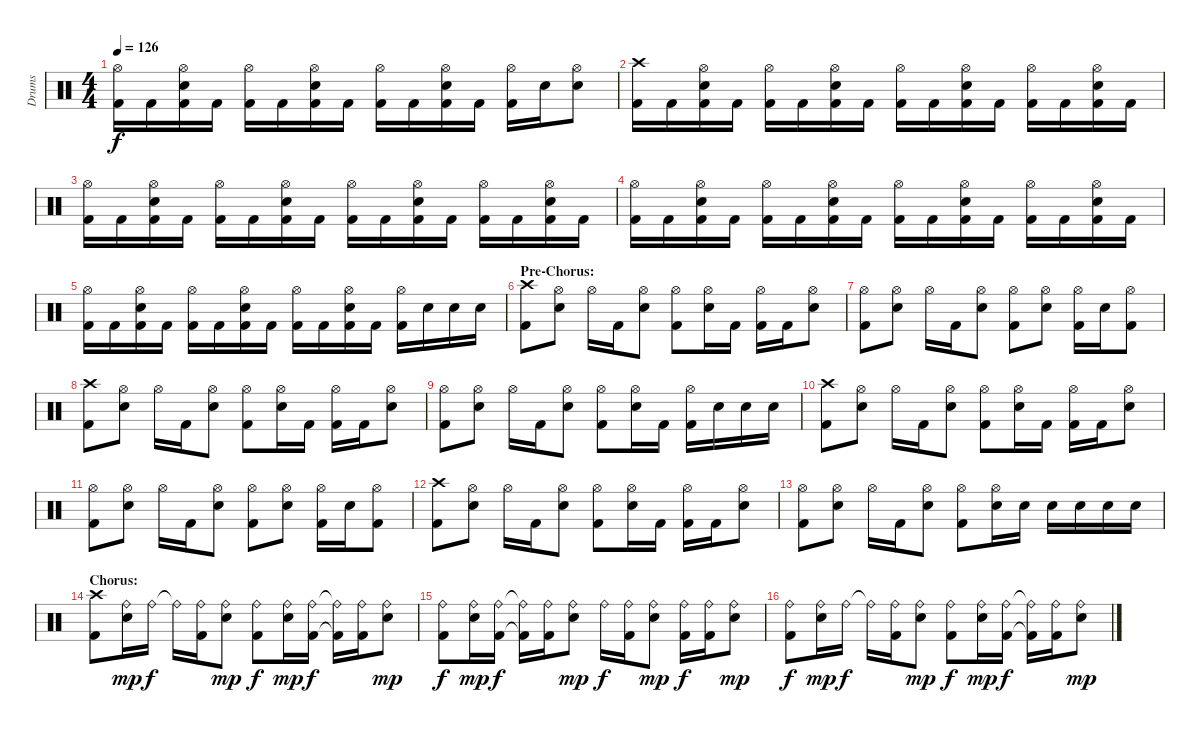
\track ("Drums" "Drums") {instrument percussion}
\staff {score}
\articulation defaults
\ts (4 4)
\tempo 126
\clef neutral
\ks c
("Hi-Hat (open)" "Kick (hit) 2").16{dy f} "Kick (hit) 2".16 ("Hi-Hat (open)" "Snare (hit) 2" "Kick (hit) 2").16 "Kick (hit) 2".16 ("Hi-Hat (open)" "Kick (hit) 2").16 "Kick (hit) 2".16 ("Hi-Hat (open)" "Snare (hit) 2" "Kick (hit) 2").16 "Kick (hit) 2".16 ("Hi-Hat (open)" "Kick (hit) 2").16 "Kick (hit) 2".16 ("Hi-Hat (open)" "Snare (hit) 2" "Kick (hit) 2").16 "Kick (hit) 2".16 ("Hi-Hat (open)" "Kick (hit) 2").16 "Snare (hit) 2".16 ("Hi-Hat (open)" "Snare (hit) 2").8 |
("Crash high (hit)" "Kick (hit) 2").16 "Kick (hit) 2".16 ("Hi-Hat (open)" "Snare (hit) 2" "Kick (hit) 2").16 "Kick (hit) 2".16 ("Hi-Hat (open)" "Kick (hit) 2").16 "Kick (hit) 2".16 ("Hi-Hat (open)" "Snare (hit) 2" "Kick (hit) 2").16 "Kick (hit) 2".16 ("Hi-Hat (open)" "Kick (hit) 2").16 "Kick (hit) 2".16 ("Hi-Hat (open)" "Snare (hit) 2" "Kick (hit) 2").16 "Kick (hit) 2".16 ("Hi-Hat (open)" "Kick (hit) 2").16 "Kick (hit) 2".16 ("Hi-Hat (open)" "Snare (hit) 2" "Kick (hit) 2").16 "Kick (hit) 2".16 |
("Hi-Hat (open)" "Kick (hit) 2").16 "Kick (hit) 2".16 ("Hi-Hat (open)" "Snare (hit) 2" "Kick (hit) 2").16 "Kick (hit) 2".16 ("Hi-Hat (open)" "Kick (hit) 2").16 "Kick (hit) 2".16 ("Hi-Hat (open)" "Snare (hit) 2" "Kick (hit) 2").16 "Kick (hit) 2".16 ("Hi-Hat (open)" "Kick (hit) 2").16 "Kick (hit) 2".16 ("Hi-Hat (open)" "Snare (hit) 2" "Kick (hit) 2").16 "Kick (hit) 2".16 ("Hi-Hat (open)" "Kick (hit) 2").16 "Kick (hit) 2".16 ("Hi-Hat (open)" "Snare (hit) 2" "Kick (hit) 2").16 "Kick (hit) 2".16 |
("Hi-Hat (open)" "Kick (hit) 2").16 "Kick (hit) 2".16 ("Hi-Hat (open)" "Snare (hit) 2" "Kick (hit) 2").16 "Kick (hit) 2".16 ("Hi-Hat (open)" "Kick (hit) 2").16 "Kick (hit) 2".16 ("Hi-Hat (open)" "Snare (hit) 2" "Kick (hit) 2").16 "Kick (hit) 2".16 ("Hi-Hat (open)" "Kick (hit) 2").16 "Kick (hit) 2".16 ("Hi-Hat (open)" "Snare (hit) 2" "Kick (hit) 2").16 "Kick (hit) 2".16 ("Hi-Hat (open)" "Kick (hit) 2").16 "Kick (hit) 2".16 ("Hi-Hat (open)" "Snare (hit) 2" "Kick (hit) 2").16 "Kick (hit) 2".16 |
("Hi-Hat (open)" "Kick (hit) 2").16 "Kick (hit) 2".16 ("Hi-Hat (open)" "Snare (hit) 2" "Kick (hit) 2").16 "Kick (hit) 2".16 ("Hi-Hat (open)" "Kick (hit) 2").16 "Kick (hit) 2".16 ("Hi-Hat (open)" "Snare (hit) 2" "Kick (hit) 2").16 "Kick (hit) 2".16 ("Hi-Hat (open)" "Kick (hit) 2").16 "Kick (hit) 2".16 ("Hi-Hat (open)" "Snare (hit) 2" "Kick (hit) 2").16 "Kick (hit) 2".16 ("Hi-Hat (open)" "Kick (hit) 2").16 "Snare (hit) 2".16 "Snare (hit) 2".16 "Snare (hit) 2".16 |
\section ("" "Pre-Chorus:")
("Crash high (hit)" "Kick (hit) 2").8 ("Hi-Hat (open)" "Snare (hit) 2").8 "Hi-Hat (open)".16 "Kick (hit) 2".16 ("Hi-Hat (open)" "Snare (hit) 2").8 ("Hi-Hat (open)" "Kick (hit) 2").8 ("Hi-Hat (open)" "Snare (hit) 2").16 "Kick (hit) 2".16 ("Hi-Hat (open)" "Kick (hit) 2").16 "Kick (hit) 2".16 ("Hi-Hat (open)" "Snare (hit) 2").8 |
("Hi-Hat (open)" "Kick (hit) 2").8 ("Hi-Hat (open)" "Snare (hit) 2").8 "Hi-Hat (open)".16 "Kick (hit) 2".16 ("Hi-Hat (open)" "Snare (hit) 2").8 ("Hi-Hat (open)" "Kick (hit) 2").8 ("Hi-Hat (open)" "Snare (hit) 2").8 ("Hi-Hat (open)" "Kick (hit) 2").16 "Snare (hit) 2".16 ("Hi-Hat (open)" "Kick (hit) 2").8 |
("Crash high (hit)" "Kick (hit) 2").8 ("Hi-Hat (open)" "Snare (hit) 2").8 "Hi-Hat (open)".16 "Kick (hit) 2".16 ("Hi-Hat (open)" "Snare (hit) 2").8 ("Hi-Hat (open)" "Kick (hit) 2").8 ("Hi-Hat (open)" "Snare (hit) 2").16 "Kick (hit) 2".16 ("Hi-Hat (open)" "Kick (hit) 2").16 "Kick (hit) 2".16 ("Hi-Hat (open)" "Snare (hit) 2").8 |
("Hi-Hat (open)" "Kick (hit) 2").8 ("Hi-Hat (open)" "Snare (hit) 2").8 "Hi-Hat (open)".16 "Kick (hit) 2".16 ("Hi-Hat (open)" "Snare (hit) 2").8 ("Hi-Hat (open)" "Kick (hit) 2").8 ("Hi-Hat (open)" "Snare (hit) 2").16 "Kick (hit) 2".16 ("Hi-Hat (open)" "Kick (hit) 2").16 "Snare (hit) 2".16 "Snare (hit) 2".16 "Snare (hit) 2".16 |
("Crash high (hit)" "Kick (hit) 2").8 ("Hi-Hat (open)" "Snare (hit) 2").8 "Hi-Hat (open)".16 "Kick (hit) 2".16 ("Hi-Hat (open)" "Snare (hit) 2").8 ("Hi-Hat (open)" "Kick (hit) 2").8 ("Hi-Hat (open)" "Snare (hit) 2").16 "Kick (hit) 2".16 ("Hi-Hat (open)" "Kick (hit) 2").16 "Kick (hit) 2".16 ("Hi-Hat (open)" "Snare (hit) 2").8 |
("Hi-Hat (open)" "Kick (hit) 2").8 ("Hi-Hat (open)" "Snare (hit) 2").8 "Hi-Hat (open)".16 "Kick (hit) 2".16 ("Hi-Hat (open)" "Snare (hit) 2").8 ("Hi-Hat (open)" "Kick (hit) 2").8 ("Hi-Hat (open)" "Snare (hit) 2").8 ("Hi-Hat (open)" "Kick (hit) 2").16 "Snare (hit) 2".16 ("Hi-Hat (open)" "Kick (hit) 2").8 |
("Crash high (hit)" "Kick (hit) 2").8 ("Hi-Hat (open)" "Snare (hit) 2").8 "Hi-Hat (open)".16 "Kick (hit) 2".16 ("Hi-Hat (open)" "Snare (hit) 2").8 ("Hi-Hat (open)" "Kick (hit) 2").8 ("Hi-Hat (open)" "Snare (hit) 2").16 "Kick (hit) 2".16 ("Hi-Hat (open)" "Kick (hit) 2").16 "Kick (hit) 2".16 ("Hi-Hat (open)" "Snare (hit) 2").8 |
("Hi-Hat (open)" "Kick (hit) 2").8 ("Hi-Hat (open)" "Snare (hit) 2").8 "Hi-Hat (open)".16 "Kick (hit) 2".16 ("Hi-Hat (open)" "Snare (hit) 2").8 ("Hi-Hat (open)" "Kick (hit) 2").8 ("Hi-Hat (open)" "Snare (hit) 2").16 "Snare (hit) 2".16 "Snare (hit) 2".16 "Snare (hit) 2".16 "Snare (hit) 2".16 "Snare (hit) 2".16 |
\section ("" "Chorus:")
("Crash high (hit)" "Kick (hit) 2").8 ("Ride (bell)" "Snare (hit) 2").16{dy mp} "Ride (bell)".16{dy f} "Ride (bell)"{t}.16 ("Ride (bell)" "Kick (hit) 2").16 ("Ride (bell)" "Snare (hit) 2").8{dy mp} ("Ride (bell)" "Kick (hit) 2").8{dy f} ("Ride (bell)" "Snare (hit) 2").16{dy mp} ("Ride (bell)" "Kick (hit) 2").16{dy f} ("Ride (bell)"{t} "Kick (hit) 2"{t}).16 ("Ride (bell)" "Kick (hit) 2").16 ("Ride (bell)" "Snare (hit) 2").8{dy mp} |
("Ride (bell)" "Kick (hit) 2").8{dy f} ("Ride (bell)" "Snare (hit) 2").16{dy mp} ("Ride (bell)" "Kick (hit) 2").16{dy f} ("Ride (bell)"{t} "Kick (hit) 2"{t}).16 ("Ride (bell)" "Kick (hit) 2").16 ("Ride (bell)" "Snare (hit) 2").8{dy mp} "Ride (bell)".16{dy f} ("Ride (bell)" "Kick (hit) 2").16 ("Ride (bell)" "Snare (hit) 2").8{dy mp} ("Ride (bell)" "Kick (hit) 2").16{dy f} ("Ride (bell)" "Kick (hit) 2").16 ("Ride (bell)" "Snare (hit) 2").8{dy mp} |
("Ride (bell)" "Kick (hit) 2").8{dy f} ("Ride (bell)" "Snare (hit) 2").16{dy mp} "Ride (bell)".16{dy f} "Ride (bell)"{t}.16 ("Ride (bell)" "Kick (hit) 2").16 ("Ride (bell)" "Snare (hit) 2").8{dy mp} ("Ride (bell)" "Kick (hit) 2").8{dy f} ("Ride (bell)" "Snare (hit) 2").16{dy mp} ("Ride (bell)" "Kick (hit) 2").16{dy f} ("Ride (bell)"{t} "Kick (hit) 2"{t}).16 ("Ride (bell)" "Kick (hit) 2").16 ("Ride (bell)" "Snare (hit) 2").8{dy mp}
